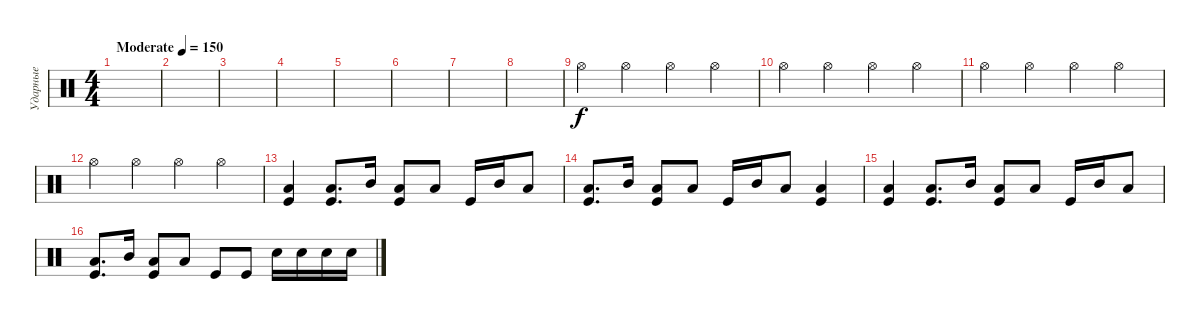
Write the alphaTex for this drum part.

\track ("Ударные" "Ударные") {instrument percussion}
\staff {score}
\articulation defaults
\ts (4 4)
\tempo (150 "Moderate")
\clef neutral
\ks c
|
|
|
|
|
|
|
|
"Hi-Hat (open)".4 "Hi-Hat (open)".4 "Hi-Hat (open)".4 "Hi-Hat (open)".4 |
"Hi-Hat (open)".4 "Hi-Hat (open)".4 "Hi-Hat (open)".4 "Hi-Hat (open)".4 |
"Hi-Hat (open)".4 "Hi-Hat (open)".4 "Hi-Hat (open)".4 "Hi-Hat (open)".4 |
"Hi-Hat (open)".4 "Hi-Hat (open)".4 "Hi-Hat (open)".4 "Hi-Hat (open)".4 |
("Kick (hit)" "Low Tom (hit)").4 ("Kick (hit)" "Low Tom (hit)").8{d} "Mid Tom (hit)".16 ("Kick (hit)" "Low Tom (hit)").8 "Low Tom (hit)".8 "Kick (hit)".16 "Mid Tom (hit)".16 "Low Tom (hit)".8 |
("Kick (hit)" "Low Tom (hit)").8{d} "Mid Tom (hit)".16 ("Kick (hit)" "Low Tom (hit)").8 "Low Tom (hit)".8 "Kick (hit)".16 "Mid Tom (hit)".16 "Low Tom (hit)".8 ("Kick (hit)" "Low Tom (hit)").4 |
("Kick (hit)" "Low Tom (hit)").4 ("Kick (hit)" "Low Tom (hit)").8{d} "Mid Tom (hit)".16 ("Kick (hit)" "Low Tom (hit)").8 "Low Tom (hit)".8 "Kick (hit)".16 "Mid Tom (hit)".16 "Low Tom (hit)".8 |
("Kick (hit)" "Low Tom (hit)").8{d} "Mid Tom (hit)".16 ("Kick (hit)" "Low Tom (hit)").8 "Low Tom (hit)".8 "Kick (hit)".8 "Kick (hit)".8 "Snare (hit) 2".16 "Snare (hit) 2".16 "Snare (hit) 2".16 "Snare (hit) 2".16
